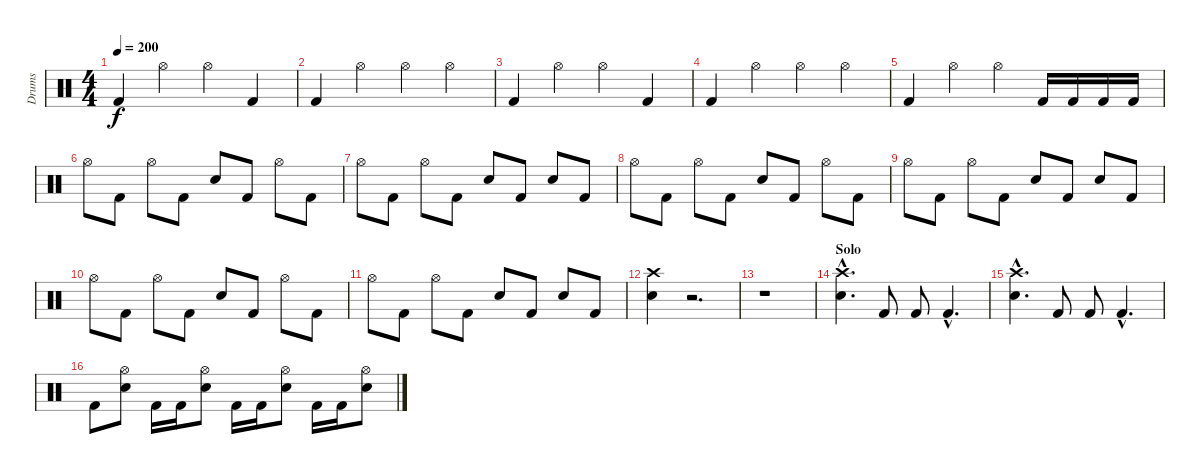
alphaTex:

\track ("Drums" "Drums") {instrument percussion}
\staff {score}
\articulation defaults
\ts (4 4)
\tempo 200
\clef neutral
\ks c "Kick (hit) 2".4{dy f} "Hi-Hat (open)".4 "Hi-Hat (open)".4 "Kick (hit) 2".4
|
"Kick (hit) 2".4 "Hi-Hat (open)".4 "Hi-Hat (open)".4 "Hi-Hat (open)".4 |
"Kick (hit) 2".4 "Hi-Hat (open)".4 "Hi-Hat (open)".4 "Kick (hit) 2".4 |
"Kick (hit) 2".4 "Hi-Hat (open)".4 "Hi-Hat (open)".4 "Hi-Hat (open)".4 |
"Kick (hit) 2".4 "Hi-Hat (open)".4 "Hi-Hat (open)".4 "Kick (hit) 2".16 "Kick (hit) 2".16 "Kick (hit) 2".16 "Kick (hit) 2".16 |
"Hi-Hat (open)".8 "Kick (hit) 2".8 "Hi-Hat (open)".8 "Kick (hit) 2".8 "Snare (hit) 2".8 "Kick (hit) 2".8 "Hi-Hat (open)".8 "Kick (hit) 2".8 |
"Hi-Hat (open)".8 "Kick (hit) 2".8 "Hi-Hat (open)".8 "Kick (hit) 2".8 "Snare (hit) 2".8 "Kick (hit) 2".8 "Snare (hit) 2".8 "Kick (hit) 2".8 |
"Hi-Hat (open)".8 "Kick (hit) 2".8 "Hi-Hat (open)".8 "Kick (hit) 2".8 "Snare (hit) 2".8 "Kick (hit) 2".8 "Hi-Hat (open)".8 "Kick (hit) 2".8 |
"Hi-Hat (open)".8 "Kick (hit) 2".8 "Hi-Hat (open)".8 "Kick (hit) 2".8 "Snare (hit) 2".8 "Kick (hit) 2".8 "Snare (hit) 2".8 "Kick (hit) 2".8 |
"Hi-Hat (open)".8 "Kick (hit) 2".8 "Hi-Hat (open)".8 "Kick (hit) 2".8 "Snare (hit) 2".8 "Kick (hit) 2".8 "Hi-Hat (open)".8 "Kick (hit) 2".8 |
"Hi-Hat (open)".8 "Kick (hit) 2".8 "Hi-Hat (open)".8 "Kick (hit) 2".8 "Snare (hit) 2".8 "Kick (hit) 2".8 "Snare (hit) 2".8 "Kick (hit) 2".8 |
("Crash high (hit)" "Snare (hit) 2").4 r.2{d} |
r.1 |
\section ("" "Solo")
("Crash high (hit)"{hac} "Snare (hit) 2"{hac}).4{d} "Kick (hit) 2".8 "Kick (hit) 2".8 "Kick (hit) 2"{hac}.4{d} |
("Crash high (hit)"{hac} "Snare (hit) 2"{hac}).4{d} "Kick (hit) 2".8 "Kick (hit) 2".8 "Kick (hit) 2"{hac}.4{d} |
"Kick (hit) 2".8 ("Hi-Hat (open)" "Snare (hit) 2").8 "Kick (hit) 2".16 "Kick (hit) 2".16 ("Hi-Hat (open)" "Snare (hit) 2").8 "Kick (hit) 2".16 "Kick (hit) 2".16 ("Hi-Hat (open)" "Snare (hit) 2").8 "Kick (hit) 2".16 "Kick (hit) 2".16 ("Hi-Hat (open)" "Snare (hit) 2").8
